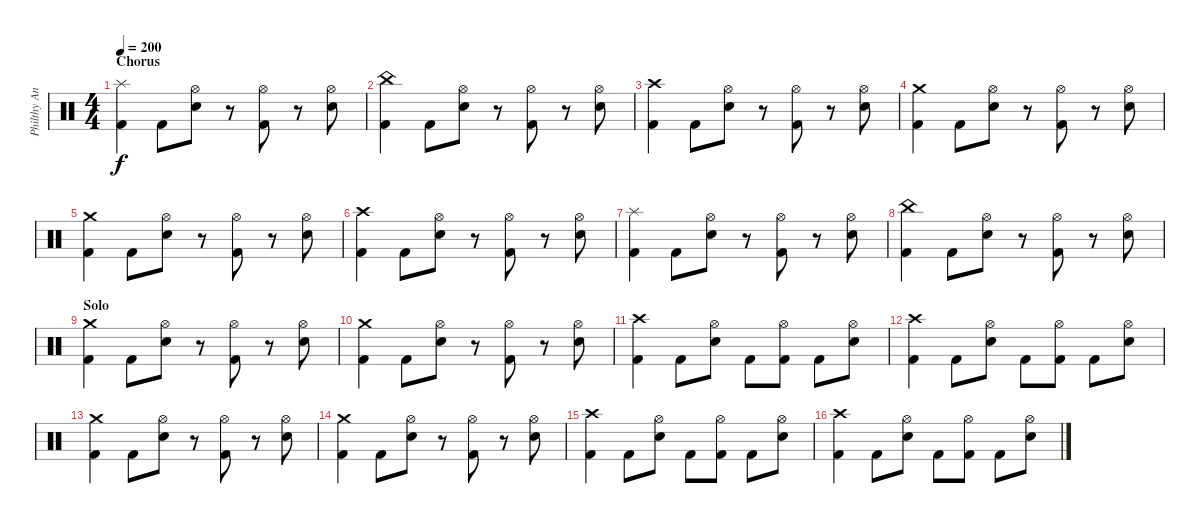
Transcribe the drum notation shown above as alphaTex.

\track ("Philthy Animal Taylor" "Philthy An") {instrument percussion}
\staff {score}
\articulation defaults
\ts (4 4)
\section ("" "Chorus")
\tempo 200
\clef neutral
\ks c
("Splash (hit)" "Kick (hit) 2").4{dy f} "Kick (hit) 2".8 ("Hi-Hat (open)" "Electric Snare (hit)").8 r.8 ("Hi-Hat (open)" "Kick (hit) 2").8 r.8 ("Hi-Hat (open)" "Electric Snare (hit)").8 |
("China (hit)" "Kick (hit) 2").4 "Kick (hit) 2".8 ("Hi-Hat (open)" "Electric Snare (hit)").8 r.8 ("Hi-Hat (open)" "Kick (hit) 2").8 r.8 ("Hi-Hat (open)" "Electric Snare (hit)").8 |
("Crash high (hit)" "Kick (hit) 2").4 "Kick (hit) 2".8 ("Hi-Hat (open)" "Electric Snare (hit)").8 r.8 ("Hi-Hat (open)" "Kick (hit) 2").8 r.8 ("Hi-Hat (open)" "Electric Snare (hit)").8 |
("Crash medium (hit)" "Kick (hit) 2").4 "Kick (hit) 2".8 ("Hi-Hat (open)" "Electric Snare (hit)").8 r.8 ("Hi-Hat (open)" "Kick (hit) 2").8 r.8 ("Hi-Hat (open)" "Electric Snare (hit)").8 |
("Crash medium (hit)" "Kick (hit) 2").4 "Kick (hit) 2".8 ("Hi-Hat (open)" "Electric Snare (hit)").8 r.8 ("Hi-Hat (open)" "Kick (hit) 2").8 r.8 ("Hi-Hat (open)" "Electric Snare (hit)").8 |
("Crash high (hit)" "Kick (hit) 2").4 "Kick (hit) 2".8 ("Hi-Hat (open)" "Electric Snare (hit)").8 r.8 ("Hi-Hat (open)" "Kick (hit) 2").8 r.8 ("Hi-Hat (open)" "Electric Snare (hit)").8 |
("Splash (hit)" "Kick (hit) 2").4 "Kick (hit) 2".8 ("Hi-Hat (open)" "Electric Snare (hit)").8 r.8 ("Hi-Hat (open)" "Kick (hit) 2").8 r.8 ("Hi-Hat (open)" "Electric Snare (hit)").8 |
("China (hit)" "Kick (hit) 2").4 "Kick (hit) 2".8 ("Hi-Hat (open)" "Electric Snare (hit)").8 r.8 ("Hi-Hat (open)" "Kick (hit) 2").8 r.8 ("Hi-Hat (open)" "Electric Snare (hit)").8 |
\section ("" "Solo")
("Crash medium (hit)" "Kick (hit) 2").4 "Kick (hit) 2".8 ("Hi-Hat (open)" "Electric Snare (hit)").8 r.8 ("Hi-Hat (open)" "Kick (hit) 2").8 r.8 ("Hi-Hat (open)" "Electric Snare (hit)").8 |
("Crash medium (hit)" "Kick (hit) 2").4 "Kick (hit) 2".8 ("Hi-Hat (open)" "Electric Snare (hit)").8 r.8 ("Hi-Hat (open)" "Kick (hit) 2").8 r.8 ("Hi-Hat (open)" "Electric Snare (hit)").8 |
("Crash high (hit)" "Kick (hit) 2").4 "Kick (hit) 2".8 ("Hi-Hat (open)" "Electric Snare (hit)").8 "Kick (hit) 2".8 ("Hi-Hat (open)" "Kick (hit) 2").8 "Kick (hit) 2".8 ("Hi-Hat (open)" "Electric Snare (hit)").8 |
("Crash high (hit)" "Kick (hit) 2").4 "Kick (hit) 2".8 ("Hi-Hat (open)" "Electric Snare (hit)").8 "Kick (hit) 2".8 ("Hi-Hat (open)" "Kick (hit) 2").8 "Kick (hit) 2".8 ("Hi-Hat (open)" "Electric Snare (hit)").8 |
("Crash medium (hit)" "Kick (hit) 2").4 "Kick (hit) 2".8 ("Hi-Hat (open)" "Electric Snare (hit)").8 r.8 ("Hi-Hat (open)" "Kick (hit) 2").8 r.8 ("Hi-Hat (open)" "Electric Snare (hit)").8 |
("Crash medium (hit)" "Kick (hit) 2").4 "Kick (hit) 2".8 ("Hi-Hat (open)" "Electric Snare (hit)").8 r.8 ("Hi-Hat (open)" "Kick (hit) 2").8 r.8 ("Hi-Hat (open)" "Electric Snare (hit)").8 |
("Crash high (hit)" "Kick (hit) 2").4 "Kick (hit) 2".8 ("Hi-Hat (open)" "Electric Snare (hit)").8 "Kick (hit) 2".8 ("Hi-Hat (open)" "Kick (hit) 2").8 "Kick (hit) 2".8 ("Hi-Hat (open)" "Electric Snare (hit)").8 |
("Crash high (hit)" "Kick (hit) 2").4 "Kick (hit) 2".8 ("Hi-Hat (open)" "Electric Snare (hit)").8 "Kick (hit) 2".8 ("Hi-Hat (open)" "Kick (hit) 2").8 "Kick (hit) 2".8 ("Hi-Hat (open)" "Electric Snare (hit)").8
